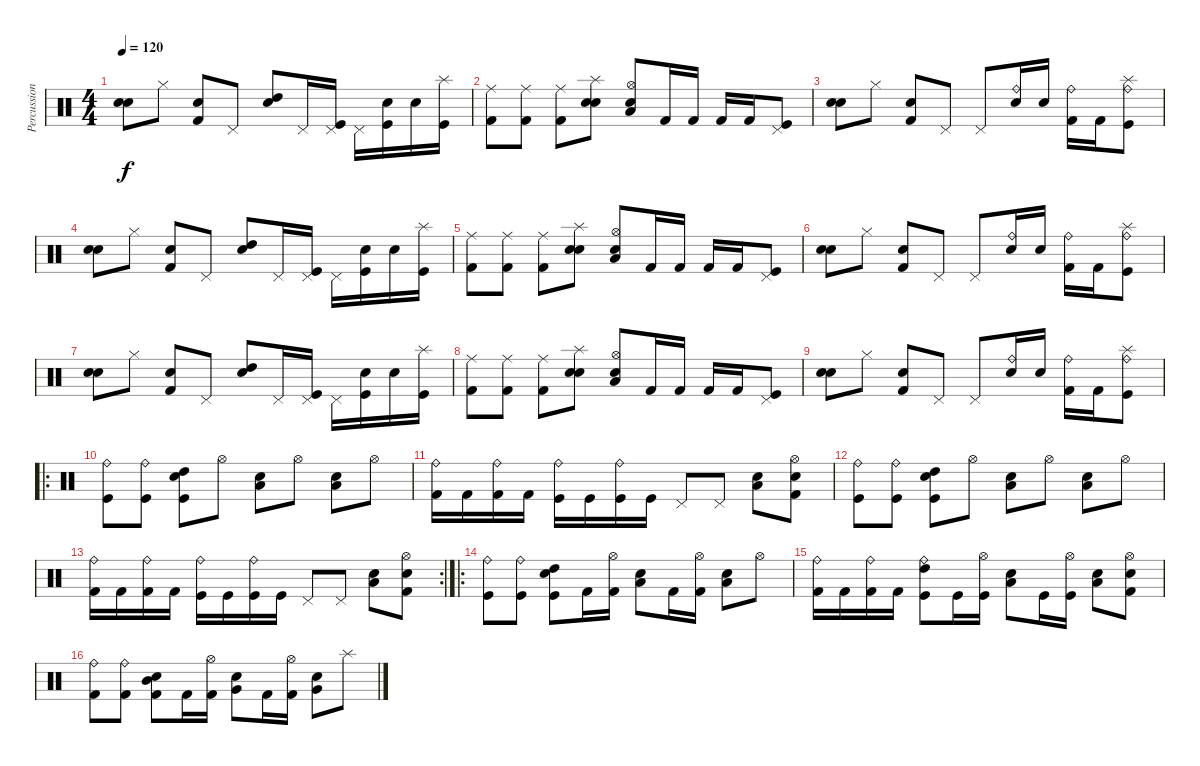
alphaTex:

\track ("Percussion" "Percussion") {instrument percussion}
\staff {score}
\articulation defaults
\ts (4 4)
\tempo 120
\clef neutral
\ks c
("Electric Snare (hit)" "Snare (hit) 2").8{dy f} "Hi-Hat (closed)".8 ("Snare (hit) 2" "Kick (hit) 2").8 "Pedal Hi-Hat (hit)".8 ("Electric Snare (hit)" "High Tom (hit)").8 "Pedal Hi-Hat (hit)".16 ("Pedal Hi-Hat (hit)" "Kick (hit)").16 "Pedal Hi-Hat (hit)".16 ("Snare (hit) 2" "Kick (hit)").16 "Snare (hit) 2".16 ("Splash (hit)" "Kick (hit)").16 |
("Ride (middle)" "Kick (hit) 2").8 ("Ride (middle)" "Kick (hit) 2").8 ("Ride (middle)" "Kick (hit) 2").8 ("Splash (hit)" "Snare (hit) 2" "Electric Snare (hit)").8 ("Hi-Hat (open)" "Low Tom (hit)" "Electric Snare (hit)").8 "Kick (hit) 2".16 "Kick (hit) 2".16 "Kick (hit) 2".16 "Kick (hit) 2".16 ("Pedal Hi-Hat (hit)" "Kick (hit)").8 |
("Electric Snare (hit)" "Snare (hit) 2").8 "Hi-Hat (closed)".8 ("Snare (hit) 2" "Kick (hit) 2").8 "Pedal Hi-Hat (hit)".8 "Pedal Hi-Hat (hit)".8 ("Electric Snare (hit)" "Ride (bell)").16 "Electric Snare (hit)".16 ("Kick (hit) 2" "Ride (bell)").16 "Kick (hit) 2".16 ("Splash (hit)" "Kick (hit)" "Ride (bell)").8 |
("Electric Snare (hit)" "Snare (hit) 2").8 "Hi-Hat (closed)".8 ("Snare (hit) 2" "Kick (hit) 2").8 "Pedal Hi-Hat (hit)".8 ("Electric Snare (hit)" "High Tom (hit)").8 "Pedal Hi-Hat (hit)".16 ("Pedal Hi-Hat (hit)" "Kick (hit)").16 "Pedal Hi-Hat (hit)".16 ("Snare (hit) 2" "Kick (hit)").16 "Snare (hit) 2".16 ("Splash (hit)" "Kick (hit)").16 |
("Ride (middle)" "Kick (hit) 2").8 ("Ride (middle)" "Kick (hit) 2").8 ("Ride (middle)" "Kick (hit) 2").8 ("Splash (hit)" "Snare (hit) 2" "Electric Snare (hit)").8 ("Hi-Hat (open)" "Low Tom (hit)" "Electric Snare (hit)").8 "Kick (hit) 2".16 "Kick (hit) 2".16 "Kick (hit) 2".16 "Kick (hit) 2".16 ("Pedal Hi-Hat (hit)" "Kick (hit)").8 |
("Electric Snare (hit)" "Snare (hit) 2").8 "Hi-Hat (closed)".8 ("Snare (hit) 2" "Kick (hit) 2").8 "Pedal Hi-Hat (hit)".8 "Pedal Hi-Hat (hit)".8 ("Electric Snare (hit)" "Ride (bell)").16 "Electric Snare (hit)".16 ("Kick (hit) 2" "Ride (bell)").16 "Kick (hit) 2".16 ("Splash (hit)" "Kick (hit)" "Ride (bell)").8 |
("Electric Snare (hit)" "Snare (hit) 2").8 "Hi-Hat (closed)".8 ("Snare (hit) 2" "Kick (hit) 2").8 "Pedal Hi-Hat (hit)".8 ("Electric Snare (hit)" "High Tom (hit)").8 "Pedal Hi-Hat (hit)".16 ("Pedal Hi-Hat (hit)" "Kick (hit)").16 "Pedal Hi-Hat (hit)".16 ("Snare (hit) 2" "Kick (hit)").16 "Snare (hit) 2".16 ("Splash (hit)" "Kick (hit)").16 |
("Ride (middle)" "Kick (hit) 2").8 ("Ride (middle)" "Kick (hit) 2").8 ("Ride (middle)" "Kick (hit) 2").8 ("Splash (hit)" "Snare (hit) 2" "Electric Snare (hit)").8 ("Hi-Hat (open)" "Low Tom (hit)" "Electric Snare (hit)").8 "Kick (hit) 2".16 "Kick (hit) 2".16 "Kick (hit) 2".16 "Kick (hit) 2".16 ("Pedal Hi-Hat (hit)" "Kick (hit)").8 |
("Electric Snare (hit)" "Snare (hit) 2").8 "Hi-Hat (closed)".8 ("Snare (hit) 2" "Kick (hit) 2").8 "Pedal Hi-Hat (hit)".8 "Pedal Hi-Hat (hit)".8 ("Electric Snare (hit)" "Ride (bell)").16 "Electric Snare (hit)".16 ("Kick (hit) 2" "Ride (bell)").16 "Kick (hit) 2".16 ("Splash (hit)" "Kick (hit)" "Ride (bell)").8 |
\ro
("Ride (bell)" "Kick (hit)").8 ("Ride (bell)" "Kick (hit)").8 ("High Tom (hit)" "Kick (hit)" "Electric Snare (hit)").8 "Hi-Hat (open)".8 ("Low Tom (hit)" "Electric Snare (hit)").8 "Hi-Hat (open)".8 ("Low Tom (hit)" "Electric Snare (hit)").8 "Hi-Hat (open)".8 |
("Kick (hit) 2" "Ride (bell)").16 "Kick (hit) 2".16 ("Kick (hit) 2" "Ride (bell)").16 "Kick (hit) 2".16 ("Kick (hit)" "Ride (bell)").16 "Kick (hit)".16 ("Kick (hit)" "Ride (bell)").16 "Kick (hit)".16 "Pedal Hi-Hat (hit)".8 "Pedal Hi-Hat (hit)".8 ("Low Tom (hit)" "Electric Snare (hit)").8 ("Snare (hit) 2" "Kick (hit) 2" "Hi-Hat (open)").8 |
("Ride (bell)" "Kick (hit)").8 ("Ride (bell)" "Kick (hit)").8 ("High Tom (hit)" "Kick (hit)" "Electric Snare (hit)").8 "Hi-Hat (open)".8 ("Low Tom (hit)" "Electric Snare (hit)").8 "Hi-Hat (open)".8 ("Low Tom (hit)" "Electric Snare (hit)").8 "Hi-Hat (open)".8 |
\rc 2
("Kick (hit) 2" "Ride (bell)").16 "Kick (hit) 2".16 ("Kick (hit) 2" "Ride (bell)").16 "Kick (hit) 2".16 ("Kick (hit)" "Ride (bell)").16 "Kick (hit)".16 ("Kick (hit)" "Ride (bell)").16 "Kick (hit)".16 "Pedal Hi-Hat (hit)".8 "Pedal Hi-Hat (hit)".8 ("Low Tom (hit)" "Electric Snare (hit)").8 ("Snare (hit) 2" "Kick (hit) 2" "Hi-Hat (open)").8 |
\ro
("Ride (bell)" "Kick (hit)").8 ("Ride (bell)" "Kick (hit)").8 ("High Tom (hit)" "Kick (hit)" "Electric Snare (hit)").8 "Kick (hit) 2".16 ("Hi-Hat (open)" "Kick (hit) 2").16 ("Low Tom (hit)" "Electric Snare (hit)").8 "Kick (hit) 2".16 ("Hi-Hat (open)" "Kick (hit) 2").16 ("Low Tom (hit)" "Electric Snare (hit)").8 "Hi-Hat (open)".8 |
("Kick (hit) 2" "Ride (bell)").16 "Kick (hit) 2".16 ("Kick (hit) 2" "Ride (bell)").16 "Kick (hit) 2".16 ("High Tom (hit)" "Kick (hit)" "Ride (bell)").8 "Kick (hit)".16 ("Kick (hit)" "Hi-Hat (open)").16 ("Low Tom (hit)" "Electric Snare (hit)").8 "Kick (hit)".16 ("Hi-Hat (open)" "Kick (hit)").16 ("Low Tom (hit)" "Electric Snare (hit)").8 ("Snare (hit) 2" "Kick (hit) 2" "Hi-Hat (open)").8 |
("Ride (bell)" "Kick (hit) 2").8 ("Ride (bell)" "Kick (hit) 2").8 ("Mid Tom (hit)" "Kick (hit) 2" "Electric Snare (hit)").8 "Kick (hit) 2".16 ("Hi-Hat (open)" "Kick (hit) 2").16 ("Very Low Tom (hit)" "Electric Snare (hit)").8 "Kick (hit) 2".16 ("Hi-Hat (open)" "Kick (hit) 2").16 ("Very Low Tom (hit)" "Snare (hit) 2").8 "Splash (hit)".8
